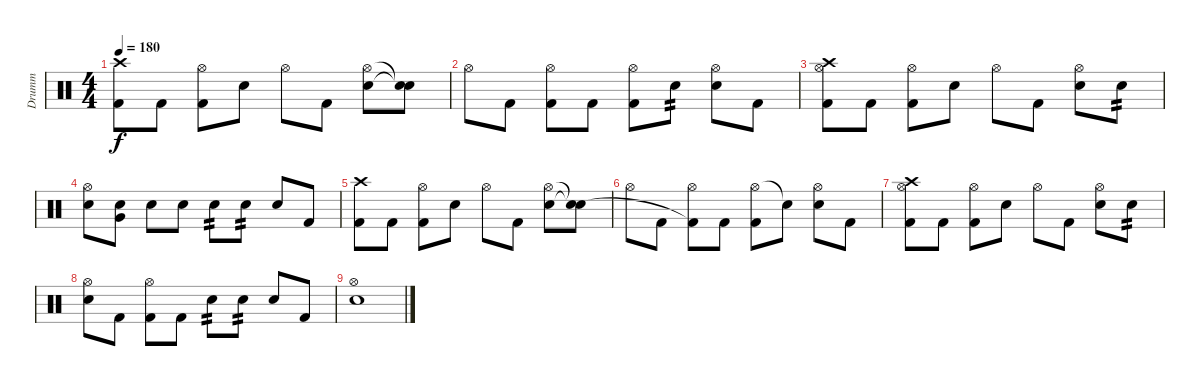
\track ("Drumm" "Drumm") {instrument percussion}
\staff {score}
\articulation defaults
\ts (4 4)
\tempo 180
\clef neutral
\ks c
("Crash high (hit)" "Kick (hit) 2").8{dy f} "Kick (hit) 2".8 ("Hi-Hat (open)" "Kick (hit) 2").8 "Snare (hit) 2".8 "Hi-Hat (open)".8 "Kick (hit) 2".8 ("Hi-Hat (open)" "Snare (hit) 2").8 ("Snare (hit)"{t} "Snare (hit) 2"{t}).8 |
"Hi-Hat (open)".8 "Kick (hit) 2".8 ("Hi-Hat (open)" "Kick (hit) 2").8 "Kick (hit) 2".8 ("Hi-Hat (open)" "Kick (hit) 2").8 "Snare (hit) 2".8{tp 2} ("Hi-Hat (open)" "Snare (hit) 2").8 "Kick (hit) 2".8 |
("Crash high (hit)" "Hi-Hat (open)" "Kick (hit) 2").8 "Kick (hit) 2".8 ("Hi-Hat (open)" "Kick (hit) 2").8 "Snare (hit) 2".8 "Hi-Hat (open)".8 "Kick (hit) 2".8 ("Hi-Hat (open)" "Snare (hit) 2").8 "Snare (hit) 2".8{tp 2} |
("Hi-Hat (open)" "Snare (hit) 2").8 ("Very Low Tom (hit)" "Snare (hit) 2").8 "Snare (hit) 2".8 "Snare (hit) 2".8 "Snare (hit) 2".8{tp 2} "Snare (hit) 2".8{tp 2} "Snare (hit) 2".8 "Kick (hit) 2".8 |
("Crash high (hit)" "Kick (hit) 2").8 "Kick (hit) 2".8 ("Hi-Hat (open)" "Kick (hit) 2").8 "Snare (hit) 2".8 "Hi-Hat (open)".8 "Kick (hit) 2".8 ("Hi-Hat (open)" "Snare (hit) 2").8 ("Snare (hit)"{t} "Snare (hit) 2"{t}).8 |
"Hi-Hat (open)".8 "Kick (hit) 2".8 ("Hi-Hat (open)" "Kick (hit) 2"{t}).8 "Kick (hit) 2".8 ("Hi-Hat (open)" "Kick (hit) 2").8 "Snare (hit)"{t}.8 ("Hi-Hat (open)" "Snare (hit) 2").8 "Kick (hit) 2".8 |
("Crash high (hit)" "Hi-Hat (open)" "Kick (hit) 2").8 "Kick (hit) 2".8 ("Hi-Hat (open)" "Kick (hit) 2").8 "Snare (hit) 2".8 "Hi-Hat (open)".8 "Kick (hit) 2".8 ("Hi-Hat (open)" "Snare (hit) 2").8 "Snare (hit) 2".8{tp 2} |
("Hi-Hat (open)" "Snare (hit) 2").8 "Kick (hit) 2".8 ("Hi-Hat (open)" "Kick (hit) 2").8 "Kick (hit) 2".8 "Snare (hit) 2".8{tp 2} "Snare (hit) 2".8{tp 2} "Snare (hit) 2".8 "Kick (hit) 2".8 |
("Hi-Hat (open)" "Snare (hit) 2").1
